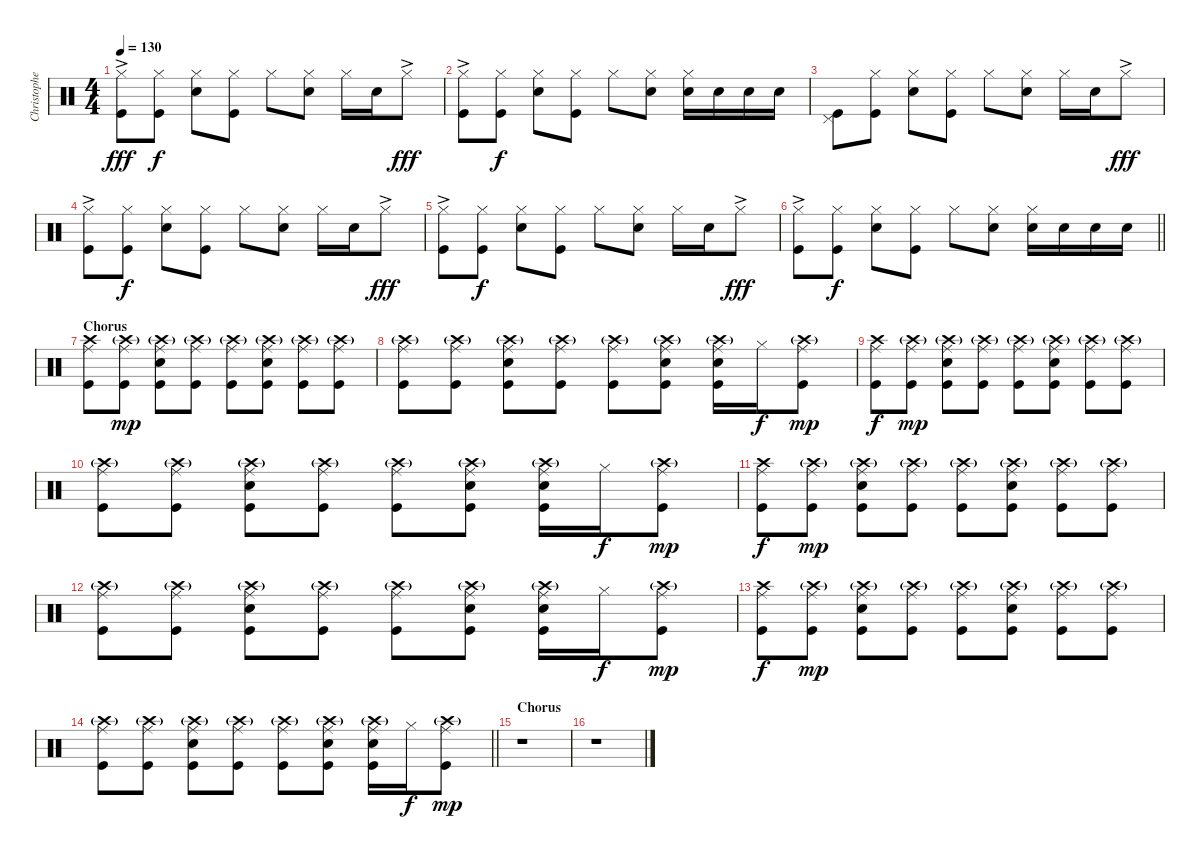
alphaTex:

\track ("Christopher - Drums" "Christophe") {instrument percussion}
\staff {score}
\articulation defaults
\ts (4 4)
\tempo 130
\clef neutral
\ks c
("Hi-Hat (closed)"{ac} "Kick (hit)").8{dy fff} ("Hi-Hat (closed)" "Kick (hit)").8{dy f} ("Hi-Hat (closed)" "Snare (hit) 2").8 ("Hi-Hat (closed)" "Kick (hit)").8 "Hi-Hat (closed)".8 ("Hi-Hat (closed)" "Snare (hit) 2").8 "Hi-Hat (closed)".16 "Snare (hit) 2".16 "Hi-Hat (closed)"{ac}.8{dy fff} |
("Hi-Hat (closed)"{ac} "Kick (hit)").8 ("Hi-Hat (closed)" "Kick (hit)").8{dy f} ("Hi-Hat (closed)" "Snare (hit) 2").8 ("Hi-Hat (closed)" "Kick (hit)").8 "Hi-Hat (closed)".8 ("Hi-Hat (closed)" "Snare (hit) 2").8 ("Hi-Hat (closed)" "Snare (hit) 2").16 "Snare (hit) 2".16 "Snare (hit) 2".16 "Snare (hit) 2".16 |
("Pedal Hi-Hat (hit)" "Kick (hit)").8 ("Hi-Hat (closed)" "Kick (hit)").8 ("Hi-Hat (closed)" "Snare (hit) 2").8 ("Hi-Hat (closed)" "Kick (hit)").8 "Hi-Hat (closed)".8 ("Hi-Hat (closed)" "Snare (hit) 2").8 "Hi-Hat (closed)".16 "Snare (hit) 2".16 "Hi-Hat (closed)"{ac}.8{dy fff} |
("Hi-Hat (closed)"{ac} "Kick (hit)").8 ("Hi-Hat (closed)" "Kick (hit)").8{dy f} ("Hi-Hat (closed)" "Snare (hit) 2").8 ("Hi-Hat (closed)" "Kick (hit)").8 "Hi-Hat (closed)".8 ("Hi-Hat (closed)" "Snare (hit) 2").8 "Hi-Hat (closed)".16 "Snare (hit) 2".16 "Hi-Hat (closed)"{ac}.8{dy fff} |
("Hi-Hat (closed)"{ac} "Kick (hit)").8 ("Hi-Hat (closed)" "Kick (hit)").8{dy f} ("Hi-Hat (closed)" "Snare (hit) 2").8 ("Hi-Hat (closed)" "Kick (hit)").8 "Hi-Hat (closed)".8 ("Hi-Hat (closed)" "Snare (hit) 2").8 "Hi-Hat (closed)".16 "Snare (hit) 2".16 "Hi-Hat (closed)"{ac}.8{dy fff} |
\barLineRight lightlight
("Hi-Hat (closed)"{ac} "Kick (hit)").8 ("Hi-Hat (closed)" "Kick (hit)").8{dy f} ("Hi-Hat (closed)" "Snare (hit) 2").8 ("Hi-Hat (closed)" "Kick (hit)").8 "Hi-Hat (closed)".8 ("Hi-Hat (closed)" "Snare (hit) 2").8 ("Hi-Hat (closed)" "Snare (hit) 2").16 "Snare (hit) 2".16 "Snare (hit) 2".16 "Snare (hit) 2".16 |
\section ("" "Chorus")
("Crash high (hit)" "Ride (middle)" "Kick (hit)").8 ("Crash high (hit)"{g} "Ride (middle)" "Kick (hit)").8{dy mp} ("Crash high (hit)"{g} "Ride (middle)" "Snare (hit) 2" "Kick (hit)").8 ("Crash high (hit)"{g} "Ride (middle)" "Kick (hit)").8 ("Crash high (hit)"{g} "Ride (middle)" "Kick (hit)").8 ("Crash high (hit)"{g} "Ride (middle)" "Snare (hit) 2" "Kick (hit)").8 ("Crash high (hit)"{g} "Ride (middle)" "Kick (hit)").8 ("Crash high (hit)"{g} "Ride (middle)" "Kick (hit)").8 |
("Crash high (hit)"{g} "Ride (middle)" "Kick (hit)").8 ("Crash high (hit)"{g} "Ride (middle)" "Kick (hit)").8 ("Crash high (hit)"{g} "Ride (middle)" "Snare (hit) 2" "Kick (hit)").8 ("Crash high (hit)"{g} "Ride (middle)" "Kick (hit)").8 ("Crash high (hit)"{g} "Ride (middle)" "Kick (hit)").8 ("Crash high (hit)"{g} "Ride (middle)" "Snare (hit) 2" "Kick (hit)").8 ("Crash high (hit)"{g} "Ride (middle)" "Snare (hit) 2" "Kick (hit)").16 "Hi-Hat (closed)".16{dy f} ("Crash high (hit)"{g} "Ride (middle)" "Kick (hit)").8{dy mp} |
("Crash high (hit)" "Ride (middle)" "Kick (hit)").8{dy f} ("Crash high (hit)"{g} "Ride (middle)" "Kick (hit)").8{dy mp} ("Crash high (hit)"{g} "Ride (middle)" "Snare (hit) 2" "Kick (hit)").8 ("Crash high (hit)"{g} "Ride (middle)" "Kick (hit)").8 ("Crash high (hit)"{g} "Ride (middle)" "Kick (hit)").8 ("Crash high (hit)"{g} "Ride (middle)" "Snare (hit) 2" "Kick (hit)").8 ("Crash high (hit)"{g} "Ride (middle)" "Kick (hit)").8 ("Crash high (hit)"{g} "Ride (middle)" "Kick (hit)").8 |
("Crash high (hit)"{g} "Ride (middle)" "Kick (hit)").8 ("Crash high (hit)"{g} "Ride (middle)" "Kick (hit)").8 ("Crash high (hit)"{g} "Ride (middle)" "Snare (hit) 2" "Kick (hit)").8 ("Crash high (hit)"{g} "Ride (middle)" "Kick (hit)").8 ("Crash high (hit)"{g} "Ride (middle)" "Kick (hit)").8 ("Crash high (hit)"{g} "Ride (middle)" "Snare (hit) 2" "Kick (hit)").8 ("Crash high (hit)"{g} "Ride (middle)" "Snare (hit) 2" "Kick (hit)").16 "Hi-Hat (closed)".16{dy f} ("Crash high (hit)"{g} "Ride (middle)" "Kick (hit)").8{dy mp} |
("Crash high (hit)" "Ride (middle)" "Kick (hit)").8{dy f} ("Crash high (hit)"{g} "Ride (middle)" "Kick (hit)").8{dy mp} ("Crash high (hit)"{g} "Ride (middle)" "Snare (hit) 2" "Kick (hit)").8 ("Crash high (hit)"{g} "Ride (middle)" "Kick (hit)").8 ("Crash high (hit)"{g} "Ride (middle)" "Kick (hit)").8 ("Crash high (hit)"{g} "Ride (middle)" "Snare (hit) 2" "Kick (hit)").8 ("Crash high (hit)"{g} "Ride (middle)" "Kick (hit)").8 ("Crash high (hit)"{g} "Ride (middle)" "Kick (hit)").8 |
("Crash high (hit)"{g} "Ride (middle)" "Kick (hit)").8 ("Crash high (hit)"{g} "Ride (middle)" "Kick (hit)").8 ("Crash high (hit)"{g} "Ride (middle)" "Snare (hit) 2" "Kick (hit)").8 ("Crash high (hit)"{g} "Ride (middle)" "Kick (hit)").8 ("Crash high (hit)"{g} "Ride (middle)" "Kick (hit)").8 ("Crash high (hit)"{g} "Ride (middle)" "Snare (hit) 2" "Kick (hit)").8 ("Crash high (hit)"{g} "Ride (middle)" "Snare (hit) 2" "Kick (hit)").16 "Hi-Hat (closed)".16{dy f} ("Crash high (hit)"{g} "Ride (middle)" "Kick (hit)").8{dy mp} |
("Crash high (hit)" "Ride (middle)" "Kick (hit)").8{dy f} ("Crash high (hit)"{g} "Ride (middle)" "Kick (hit)").8{dy mp} ("Crash high (hit)"{g} "Ride (middle)" "Snare (hit) 2" "Kick (hit)").8 ("Crash high (hit)"{g} "Ride (middle)" "Kick (hit)").8 ("Crash high (hit)"{g} "Ride (middle)" "Kick (hit)").8 ("Crash high (hit)"{g} "Ride (middle)" "Snare (hit) 2" "Kick (hit)").8 ("Crash high (hit)"{g} "Ride (middle)" "Kick (hit)").8 ("Crash high (hit)"{g} "Ride (middle)" "Kick (hit)").8 |
\barLineRight lightlight
("Crash high (hit)"{g} "Ride (middle)" "Kick (hit)").8 ("Crash high (hit)"{g} "Ride (middle)" "Kick (hit)").8 ("Crash high (hit)"{g} "Ride (middle)" "Snare (hit) 2" "Kick (hit)").8 ("Crash high (hit)"{g} "Ride (middle)" "Kick (hit)").8 ("Crash high (hit)"{g} "Ride (middle)" "Kick (hit)").8 ("Crash high (hit)"{g} "Ride (middle)" "Snare (hit) 2" "Kick (hit)").8 ("Crash high (hit)"{g} "Ride (middle)" "Snare (hit) 2" "Kick (hit)").16 "Hi-Hat (closed)".16{dy f} ("Crash high (hit)"{g} "Ride (middle)" "Kick (hit)").8{dy mp} |
\section ("" "Chorus")
r.1 |
r.1
